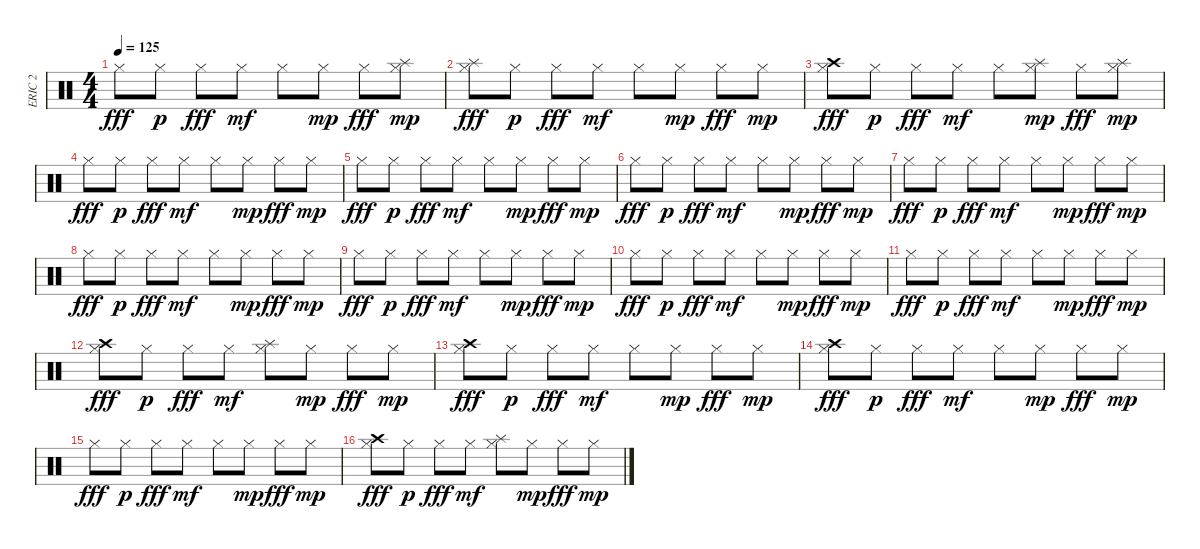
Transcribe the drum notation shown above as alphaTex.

\track ("ERIC 2" "ERIC 2") {instrument percussion}
\staff {score}
\articulation defaults
\ts (4 4)
\tempo 125
\clef neutral
\ks c "Hi-Hat (closed)".8{dy fff} "Hi-Hat (closed)".8{dy p} "Hi-Hat (closed)".8{dy fff} "Hi-Hat (closed)".8{dy mf} "Hi-Hat (closed)".8 "Hi-Hat (closed)".8{dy mp} "Hi-Hat (closed)".8{dy fff}
("Splash (hit)" "Hi-Hat (closed)").8{dy mp} |
("Splash (hit)" "Hi-Hat (closed)").8{dy fff} "Hi-Hat (closed)".8{dy p} "Hi-Hat (closed)".8{dy fff} "Hi-Hat (closed)".8{dy mf} "Hi-Hat (closed)".8 "Hi-Hat (closed)".8{dy mp} "Hi-Hat (closed)".8{dy fff} "Hi-Hat (closed)".8{dy mp} |
("Crash high (hit)" "Hi-Hat (closed)").8{dy fff} "Hi-Hat (closed)".8{dy p} "Hi-Hat (closed)".8{dy fff} "Hi-Hat (closed)".8{dy mf} "Hi-Hat (closed)".8 ("Splash (hit)" "Hi-Hat (closed)").8{dy mp} "Hi-Hat (closed)".8{dy fff} ("Splash (hit)" "Hi-Hat (closed)").8{dy mp} |
"Hi-Hat (closed)".8{dy fff} "Hi-Hat (closed)".8{dy p} "Hi-Hat (closed)".8{dy fff} "Hi-Hat (closed)".8{dy mf} "Hi-Hat (closed)".8 "Hi-Hat (closed)".8{dy mp} "Hi-Hat (closed)".8{dy fff} "Hi-Hat (closed)".8{dy mp} |
"Hi-Hat (closed)".8{dy fff} "Hi-Hat (closed)".8{dy p} "Hi-Hat (closed)".8{dy fff} "Hi-Hat (closed)".8{dy mf} "Hi-Hat (closed)".8 "Hi-Hat (closed)".8{dy mp} "Hi-Hat (closed)".8{dy fff} "Hi-Hat (closed)".8{dy mp} |
"Hi-Hat (closed)".8{dy fff} "Hi-Hat (closed)".8{dy p} "Hi-Hat (closed)".8{dy fff} "Hi-Hat (closed)".8{dy mf} "Hi-Hat (closed)".8 "Hi-Hat (closed)".8{dy mp} "Hi-Hat (closed)".8{dy fff} "Hi-Hat (closed)".8{dy mp} |
"Hi-Hat (closed)".8{dy fff} "Hi-Hat (closed)".8{dy p} "Hi-Hat (closed)".8{dy fff} "Hi-Hat (closed)".8{dy mf} "Hi-Hat (closed)".8 "Hi-Hat (closed)".8{dy mp} "Hi-Hat (closed)".8{dy fff} "Hi-Hat (closed)".8{dy mp} |
"Hi-Hat (closed)".8{dy fff} "Hi-Hat (closed)".8{dy p} "Hi-Hat (closed)".8{dy fff} "Hi-Hat (closed)".8{dy mf} "Hi-Hat (closed)".8 "Hi-Hat (closed)".8{dy mp} "Hi-Hat (closed)".8{dy fff} "Hi-Hat (closed)".8{dy mp} |
"Hi-Hat (closed)".8{dy fff} "Hi-Hat (closed)".8{dy p} "Hi-Hat (closed)".8{dy fff} "Hi-Hat (closed)".8{dy mf} "Hi-Hat (closed)".8 "Hi-Hat (closed)".8{dy mp} "Hi-Hat (closed)".8{dy fff} "Hi-Hat (closed)".8{dy mp} |
"Hi-Hat (closed)".8{dy fff} "Hi-Hat (closed)".8{dy p} "Hi-Hat (closed)".8{dy fff} "Hi-Hat (closed)".8{dy mf} "Hi-Hat (closed)".8 "Hi-Hat (closed)".8{dy mp} "Hi-Hat (closed)".8{dy fff} "Hi-Hat (closed)".8{dy mp} |
"Hi-Hat (closed)".8{dy fff} "Hi-Hat (closed)".8{dy p} "Hi-Hat (closed)".8{dy fff} "Hi-Hat (closed)".8{dy mf} "Hi-Hat (closed)".8 "Hi-Hat (closed)".8{dy mp} "Hi-Hat (closed)".8{dy fff} "Hi-Hat (closed)".8{dy mp} |
("Crash high (hit)" "Hi-Hat (closed)").8{dy fff} "Hi-Hat (closed)".8{dy p} "Hi-Hat (closed)".8{dy fff} "Hi-Hat (closed)".8{dy mf} ("Splash (hit)" "Hi-Hat (closed)").8 "Hi-Hat (closed)".8{dy mp} "Hi-Hat (closed)".8{dy fff} "Hi-Hat (closed)".8{dy mp} |
("Crash high (hit)" "Hi-Hat (closed)").8{dy fff} "Hi-Hat (closed)".8{dy p} "Hi-Hat (closed)".8{dy fff} "Hi-Hat (closed)".8{dy mf} "Hi-Hat (closed)".8 "Hi-Hat (closed)".8{dy mp} "Hi-Hat (closed)".8{dy fff} "Hi-Hat (closed)".8{dy mp} |
("Crash high (hit)" "Hi-Hat (closed)").8{dy fff} "Hi-Hat (closed)".8{dy p} "Hi-Hat (closed)".8{dy fff} "Hi-Hat (closed)".8{dy mf} "Hi-Hat (closed)".8 "Hi-Hat (closed)".8{dy mp} "Hi-Hat (closed)".8{dy fff} "Hi-Hat (closed)".8{dy mp} |
"Hi-Hat (closed)".8{dy fff} "Hi-Hat (closed)".8{dy p} "Hi-Hat (closed)".8{dy fff} "Hi-Hat (closed)".8{dy mf} "Hi-Hat (closed)".8 "Hi-Hat (closed)".8{dy mp} "Hi-Hat (closed)".8{dy fff} "Hi-Hat (closed)".8{dy mp} |
("Crash high (hit)" "Hi-Hat (closed)").8{dy fff} "Hi-Hat (closed)".8{dy p} "Hi-Hat (closed)".8{dy fff} "Hi-Hat (closed)".8{dy mf} ("Splash (hit)" "Hi-Hat (closed)").8 "Hi-Hat (closed)".8{dy mp} "Hi-Hat (closed)".8{dy fff} "Hi-Hat (closed)".8{dy mp}
